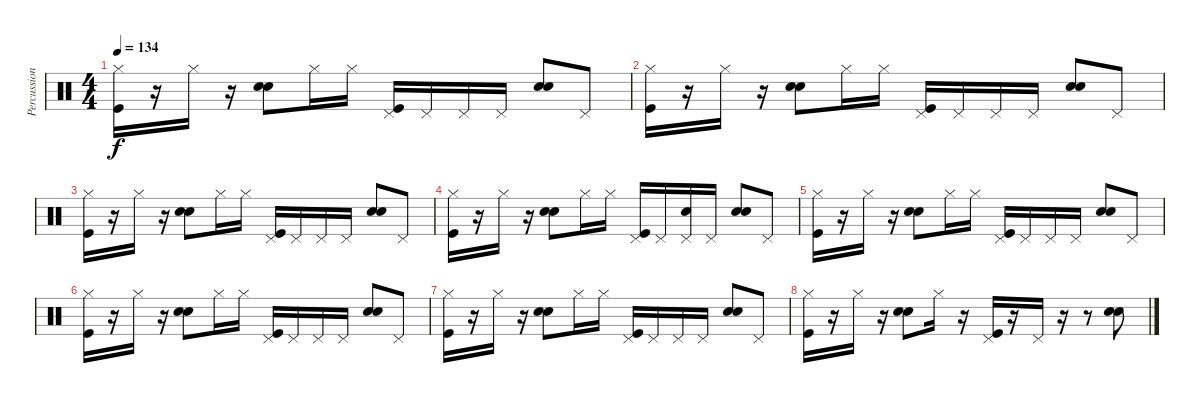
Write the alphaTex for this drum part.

\track ("Percussion" "Percussion") {instrument percussion}
\staff {score}
\articulation defaults
\ts (4 4)
\tempo 134
\clef neutral
\ks c
("Hi-Hat (closed)" "Kick (hit)").16{dy f} r.16 "Hi-Hat (closed)".16 r.16 ("Hand Clap (hit)" "Electric Snare (hit)").8 "Hi-Hat (closed)".16 "Hi-Hat (closed)".16 ("Pedal Hi-Hat (hit)" "Kick (hit)").16 "Pedal Hi-Hat (hit)".16 "Pedal Hi-Hat (hit)".16 "Pedal Hi-Hat (hit)".16 ("Hand Clap (hit)" "Electric Snare (hit)").8 "Pedal Hi-Hat (hit)".8 |
("Hi-Hat (closed)" "Kick (hit)").16 r.16 "Hi-Hat (closed)".16 r.16 ("Hand Clap (hit)" "Electric Snare (hit)").8 "Hi-Hat (closed)".16 "Hi-Hat (closed)".16 ("Pedal Hi-Hat (hit)" "Kick (hit)").16 "Pedal Hi-Hat (hit)".16 "Pedal Hi-Hat (hit)".16 "Pedal Hi-Hat (hit)".16 ("Hand Clap (hit)" "Electric Snare (hit)").8 "Pedal Hi-Hat (hit)".8 |
("Hi-Hat (closed)" "Kick (hit)").16 r.16 "Hi-Hat (closed)".16 r.16 ("Hand Clap (hit)" "Electric Snare (hit)").8 "Hi-Hat (closed)".16 "Hi-Hat (closed)".16 ("Pedal Hi-Hat (hit)" "Kick (hit)").16 "Pedal Hi-Hat (hit)".16 "Pedal Hi-Hat (hit)".16 "Pedal Hi-Hat (hit)".16 ("Hand Clap (hit)" "Electric Snare (hit)").8 "Pedal Hi-Hat (hit)".8 |
("Hi-Hat (closed)" "Kick (hit)").16 r.16 "Hi-Hat (closed)".16 r.16 ("Hand Clap (hit)" "Electric Snare (hit)").8 "Hi-Hat (closed)".16 "Hi-Hat (closed)".16 ("Pedal Hi-Hat (hit)" "Kick (hit)").16 "Pedal Hi-Hat (hit)".16 ("Pedal Hi-Hat (hit)" "Hand Clap (hit)").16 "Pedal Hi-Hat (hit)".16 ("Hand Clap (hit)" "Electric Snare (hit)").8 "Pedal Hi-Hat (hit)".8 |
("Hi-Hat (closed)" "Kick (hit)").16 r.16 "Hi-Hat (closed)".16 r.16 ("Hand Clap (hit)" "Electric Snare (hit)").8 "Hi-Hat (closed)".16 "Hi-Hat (closed)".16 ("Pedal Hi-Hat (hit)" "Kick (hit)").16 "Pedal Hi-Hat (hit)".16 "Pedal Hi-Hat (hit)".16 "Pedal Hi-Hat (hit)".16 ("Hand Clap (hit)" "Electric Snare (hit)").8 "Pedal Hi-Hat (hit)".8 |
("Hi-Hat (closed)" "Kick (hit)").16 r.16 "Hi-Hat (closed)".16 r.16 ("Hand Clap (hit)" "Electric Snare (hit)").8 "Hi-Hat (closed)".16 "Hi-Hat (closed)".16 ("Pedal Hi-Hat (hit)" "Kick (hit)").16 "Pedal Hi-Hat (hit)".16 "Pedal Hi-Hat (hit)".16 "Pedal Hi-Hat (hit)".16 ("Hand Clap (hit)" "Electric Snare (hit)").8 "Pedal Hi-Hat (hit)".8 |
("Hi-Hat (closed)" "Kick (hit)").16 r.16 "Hi-Hat (closed)".16 r.16 ("Hand Clap (hit)" "Electric Snare (hit)").8 "Hi-Hat (closed)".16 "Hi-Hat (closed)".16 ("Pedal Hi-Hat (hit)" "Kick (hit)").16 "Pedal Hi-Hat (hit)".16 "Pedal Hi-Hat (hit)".16 "Pedal Hi-Hat (hit)".16 ("Hand Clap (hit)" "Electric Snare (hit)").8 "Pedal Hi-Hat (hit)".8 |
("Hi-Hat (closed)" "Kick (hit)").16 r.16 "Hi-Hat (closed)".16 r.16 ("Hand Clap (hit)" "Electric Snare (hit)").8 "Hi-Hat (closed)".16 r.16 ("Pedal Hi-Hat (hit)" "Kick (hit)").16 r.16 "Pedal Hi-Hat (hit)".16 r.16 r.8 ("Hand Clap (hit)" "Electric Snare (hit)").8
